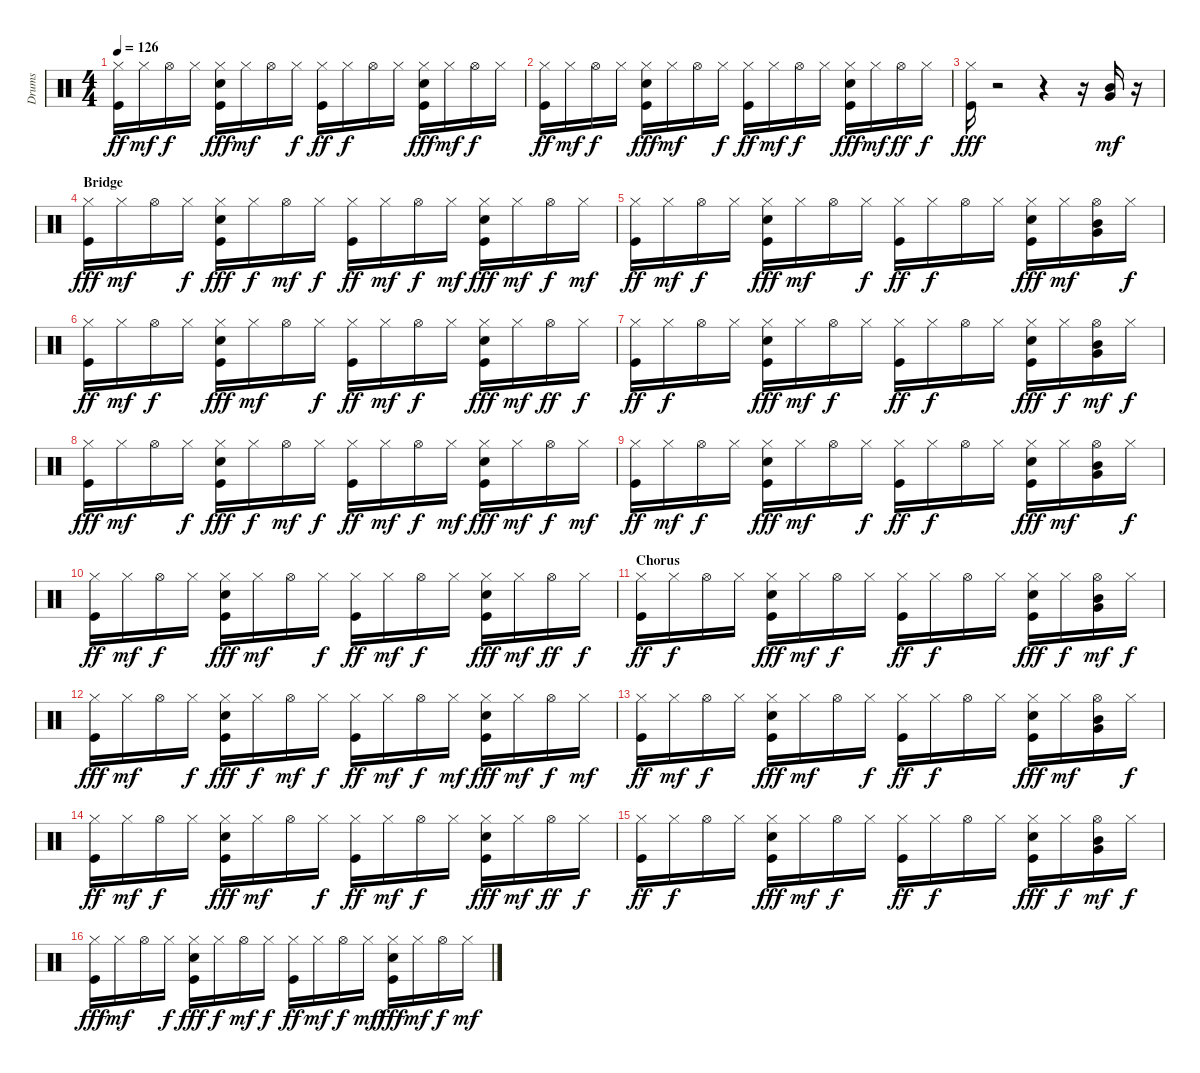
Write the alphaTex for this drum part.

\track ("Drums" "Drums") {instrument percussion}
\staff {score}
\articulation defaults
\ts (4 4)
\tempo 126
\clef neutral
\ks c
("Kick (hit)" "Hi-Hat (closed)").16{dy ff} "Hi-Hat (closed)".16{dy mf} "Hi-Hat (open)".16{dy f} "Hi-Hat (closed)".16 ("Kick (hit)" "Electric Snare (hit)" "Hi-Hat (closed)").16{dy fff} "Hi-Hat (closed)".16{dy mf} "Hi-Hat (open)".16 "Hi-Hat (closed)".16{dy f} ("Kick (hit)" "Hi-Hat (closed)").16{dy ff} "Hi-Hat (closed)".16{dy f} "Hi-Hat (open)".16 "Hi-Hat (closed)".16 ("Kick (hit)" "Electric Snare (hit)" "Hi-Hat (closed)").16{dy fff} "Hi-Hat (closed)".16{dy mf} "Hi-Hat (open)".16{dy f} "Hi-Hat (closed)".16 |
("Kick (hit)" "Hi-Hat (closed)").16{dy ff} "Hi-Hat (closed)".16{dy mf} "Hi-Hat (open)".16{dy f} "Hi-Hat (closed)".16 ("Kick (hit)" "Electric Snare (hit)" "Hi-Hat (closed)").16{dy fff} "Hi-Hat (closed)".16{dy mf} "Hi-Hat (open)".16 "Hi-Hat (closed)".16{dy f} ("Kick (hit)" "Hi-Hat (closed)").16{dy ff} "Hi-Hat (closed)".16{dy mf} "Hi-Hat (open)".16{dy f} "Hi-Hat (closed)".16 ("Kick (hit)" "Electric Snare (hit)" "Hi-Hat (closed)").16{dy fff} "Hi-Hat (closed)".16{dy mf} "Hi-Hat (open)".16{dy ff} "Hi-Hat (closed)".16{dy f} |
("Kick (hit)" "Hi-Hat (closed)").16{dy fff} r.2 r.4 r.16 ("Very Low Tom (hit)" "Mid Tom (hit)").16{dy mf} r.16 |
\section ("" "Bridge")
("Kick (hit)" "Hi-Hat (closed)").16{dy fff} "Hi-Hat (closed)".16{dy mf} "Hi-Hat (open)".16 "Hi-Hat (closed)".16{dy f} ("Kick (hit)" "Electric Snare (hit)" "Hi-Hat (closed)").16{dy fff} "Hi-Hat (closed)".16{dy f} "Hi-Hat (open)".16{dy mf} "Hi-Hat (closed)".16{dy f} ("Kick (hit)" "Hi-Hat (closed)").16{dy ff} "Hi-Hat (closed)".16{dy mf} "Hi-Hat (open)".16{dy f} "Hi-Hat (closed)".16{dy mf} ("Kick (hit)" "Electric Snare (hit)" "Hi-Hat (closed)").16{dy fff} "Hi-Hat (closed)".16{dy mf} "Hi-Hat (open)".16{dy f} "Hi-Hat (closed)".16{dy mf} |
("Kick (hit)" "Hi-Hat (closed)").16{dy ff} "Hi-Hat (closed)".16{dy mf} "Hi-Hat (open)".16{dy f} "Hi-Hat (closed)".16 ("Kick (hit)" "Electric Snare (hit)" "Hi-Hat (closed)").16{dy fff} "Hi-Hat (closed)".16{dy mf} "Hi-Hat (open)".16 "Hi-Hat (closed)".16{dy f} ("Kick (hit)" "Hi-Hat (closed)").16{dy ff} "Hi-Hat (closed)".16{dy f} "Hi-Hat (open)".16 "Hi-Hat (closed)".16 ("Kick (hit)" "Electric Snare (hit)" "Hi-Hat (closed)").16{dy fff} "Hi-Hat (closed)".16{dy mf} ("Very Low Tom (hit)" "Hi-Hat (open)" "Mid Tom (hit)").16 "Hi-Hat (closed)".16{dy f} |
("Kick (hit)" "Hi-Hat (closed)").16{dy ff} "Hi-Hat (closed)".16{dy mf} "Hi-Hat (open)".16{dy f} "Hi-Hat (closed)".16 ("Kick (hit)" "Electric Snare (hit)" "Hi-Hat (closed)").16{dy fff} "Hi-Hat (closed)".16{dy mf} "Hi-Hat (open)".16 "Hi-Hat (closed)".16{dy f} ("Kick (hit)" "Hi-Hat (closed)").16{dy ff} "Hi-Hat (closed)".16{dy mf} "Hi-Hat (open)".16{dy f} "Hi-Hat (closed)".16 ("Kick (hit)" "Electric Snare (hit)" "Hi-Hat (closed)").16{dy fff} "Hi-Hat (closed)".16{dy mf} "Hi-Hat (open)".16{dy ff} "Hi-Hat (closed)".16{dy f} |
("Kick (hit)" "Hi-Hat (closed)").16{dy ff} "Hi-Hat (closed)".16{dy f} "Hi-Hat (open)".16 "Hi-Hat (closed)".16 ("Kick (hit)" "Electric Snare (hit)" "Hi-Hat (closed)").16{dy fff} "Hi-Hat (closed)".16{dy mf} "Hi-Hat (open)".16{dy f} "Hi-Hat (closed)".16 ("Kick (hit)" "Hi-Hat (closed)").16{dy ff} "Hi-Hat (closed)".16{dy f} "Hi-Hat (open)".16 "Hi-Hat (closed)".16 ("Kick (hit)" "Electric Snare (hit)" "Hi-Hat (closed)").16{dy fff} "Hi-Hat (closed)".16{dy f} ("Very Low Tom (hit)" "Hi-Hat (open)" "Mid Tom (hit)").16{dy mf} "Hi-Hat (closed)".16{dy f} |
("Kick (hit)" "Hi-Hat (closed)").16{dy fff} "Hi-Hat (closed)".16{dy mf} "Hi-Hat (open)".16 "Hi-Hat (closed)".16{dy f} ("Kick (hit)" "Electric Snare (hit)" "Hi-Hat (closed)").16{dy fff} "Hi-Hat (closed)".16{dy f} "Hi-Hat (open)".16{dy mf} "Hi-Hat (closed)".16{dy f} ("Kick (hit)" "Hi-Hat (closed)").16{dy ff} "Hi-Hat (closed)".16{dy mf} "Hi-Hat (open)".16{dy f} "Hi-Hat (closed)".16{dy mf} ("Kick (hit)" "Electric Snare (hit)" "Hi-Hat (closed)").16{dy fff} "Hi-Hat (closed)".16{dy mf} "Hi-Hat (open)".16{dy f} "Hi-Hat (closed)".16{dy mf} |
("Kick (hit)" "Hi-Hat (closed)").16{dy ff} "Hi-Hat (closed)".16{dy mf} "Hi-Hat (open)".16{dy f} "Hi-Hat (closed)".16 ("Kick (hit)" "Electric Snare (hit)" "Hi-Hat (closed)").16{dy fff} "Hi-Hat (closed)".16{dy mf} "Hi-Hat (open)".16 "Hi-Hat (closed)".16{dy f} ("Kick (hit)" "Hi-Hat (closed)").16{dy ff} "Hi-Hat (closed)".16{dy f} "Hi-Hat (open)".16 "Hi-Hat (closed)".16 ("Kick (hit)" "Electric Snare (hit)" "Hi-Hat (closed)").16{dy fff} "Hi-Hat (closed)".16{dy mf} ("Very Low Tom (hit)" "Hi-Hat (open)" "Mid Tom (hit)").16 "Hi-Hat (closed)".16{dy f} |
("Kick (hit)" "Hi-Hat (closed)").16{dy ff} "Hi-Hat (closed)".16{dy mf} "Hi-Hat (open)".16{dy f} "Hi-Hat (closed)".16 ("Kick (hit)" "Electric Snare (hit)" "Hi-Hat (closed)").16{dy fff} "Hi-Hat (closed)".16{dy mf} "Hi-Hat (open)".16 "Hi-Hat (closed)".16{dy f} ("Kick (hit)" "Hi-Hat (closed)").16{dy ff} "Hi-Hat (closed)".16{dy mf} "Hi-Hat (open)".16{dy f} "Hi-Hat (closed)".16 ("Kick (hit)" "Electric Snare (hit)" "Hi-Hat (closed)").16{dy fff} "Hi-Hat (closed)".16{dy mf} "Hi-Hat (open)".16{dy ff} "Hi-Hat (closed)".16{dy f} |
\section ("" "Chorus")
("Kick (hit)" "Hi-Hat (closed)").16{dy ff} "Hi-Hat (closed)".16{dy f} "Hi-Hat (open)".16 "Hi-Hat (closed)".16 ("Kick (hit)" "Electric Snare (hit)" "Hi-Hat (closed)").16{dy fff} "Hi-Hat (closed)".16{dy mf} "Hi-Hat (open)".16{dy f} "Hi-Hat (closed)".16 ("Kick (hit)" "Hi-Hat (closed)").16{dy ff} "Hi-Hat (closed)".16{dy f} "Hi-Hat (open)".16 "Hi-Hat (closed)".16 ("Kick (hit)" "Electric Snare (hit)" "Hi-Hat (closed)").16{dy fff} "Hi-Hat (closed)".16{dy f} ("Very Low Tom (hit)" "Hi-Hat (open)" "Mid Tom (hit)").16{dy mf} "Hi-Hat (closed)".16{dy f} |
("Kick (hit)" "Hi-Hat (closed)").16{dy fff} "Hi-Hat (closed)".16{dy mf} "Hi-Hat (open)".16 "Hi-Hat (closed)".16{dy f} ("Kick (hit)" "Electric Snare (hit)" "Hi-Hat (closed)").16{dy fff} "Hi-Hat (closed)".16{dy f} "Hi-Hat (open)".16{dy mf} "Hi-Hat (closed)".16{dy f} ("Kick (hit)" "Hi-Hat (closed)").16{dy ff} "Hi-Hat (closed)".16{dy mf} "Hi-Hat (open)".16{dy f} "Hi-Hat (closed)".16{dy mf} ("Kick (hit)" "Electric Snare (hit)" "Hi-Hat (closed)").16{dy fff} "Hi-Hat (closed)".16{dy mf} "Hi-Hat (open)".16{dy f} "Hi-Hat (closed)".16{dy mf} |
("Kick (hit)" "Hi-Hat (closed)").16{dy ff} "Hi-Hat (closed)".16{dy mf} "Hi-Hat (open)".16{dy f} "Hi-Hat (closed)".16 ("Kick (hit)" "Electric Snare (hit)" "Hi-Hat (closed)").16{dy fff} "Hi-Hat (closed)".16{dy mf} "Hi-Hat (open)".16 "Hi-Hat (closed)".16{dy f} ("Kick (hit)" "Hi-Hat (closed)").16{dy ff} "Hi-Hat (closed)".16{dy f} "Hi-Hat (open)".16 "Hi-Hat (closed)".16 ("Kick (hit)" "Electric Snare (hit)" "Hi-Hat (closed)").16{dy fff} "Hi-Hat (closed)".16{dy mf} ("Very Low Tom (hit)" "Hi-Hat (open)" "Mid Tom (hit)").16 "Hi-Hat (closed)".16{dy f} |
("Kick (hit)" "Hi-Hat (closed)").16{dy ff} "Hi-Hat (closed)".16{dy mf} "Hi-Hat (open)".16{dy f} "Hi-Hat (closed)".16 ("Kick (hit)" "Electric Snare (hit)" "Hi-Hat (closed)").16{dy fff} "Hi-Hat (closed)".16{dy mf} "Hi-Hat (open)".16 "Hi-Hat (closed)".16{dy f} ("Kick (hit)" "Hi-Hat (closed)").16{dy ff} "Hi-Hat (closed)".16{dy mf} "Hi-Hat (open)".16{dy f} "Hi-Hat (closed)".16 ("Kick (hit)" "Electric Snare (hit)" "Hi-Hat (closed)").16{dy fff} "Hi-Hat (closed)".16{dy mf} "Hi-Hat (open)".16{dy ff} "Hi-Hat (closed)".16{dy f} |
("Kick (hit)" "Hi-Hat (closed)").16{dy ff} "Hi-Hat (closed)".16{dy f} "Hi-Hat (open)".16 "Hi-Hat (closed)".16 ("Kick (hit)" "Electric Snare (hit)" "Hi-Hat (closed)").16{dy fff} "Hi-Hat (closed)".16{dy mf} "Hi-Hat (open)".16{dy f} "Hi-Hat (closed)".16 ("Kick (hit)" "Hi-Hat (closed)").16{dy ff} "Hi-Hat (closed)".16{dy f} "Hi-Hat (open)".16 "Hi-Hat (closed)".16 ("Kick (hit)" "Electric Snare (hit)" "Hi-Hat (closed)").16{dy fff} "Hi-Hat (closed)".16{dy f} ("Very Low Tom (hit)" "Hi-Hat (open)" "Mid Tom (hit)").16{dy mf} "Hi-Hat (closed)".16{dy f} |
("Kick (hit)" "Hi-Hat (closed)").16{dy fff} "Hi-Hat (closed)".16{dy mf} "Hi-Hat (open)".16 "Hi-Hat (closed)".16{dy f} ("Kick (hit)" "Electric Snare (hit)" "Hi-Hat (closed)").16{dy fff} "Hi-Hat (closed)".16{dy f} "Hi-Hat (open)".16{dy mf} "Hi-Hat (closed)".16{dy f} ("Kick (hit)" "Hi-Hat (closed)").16{dy ff} "Hi-Hat (closed)".16{dy mf} "Hi-Hat (open)".16{dy f} "Hi-Hat (closed)".16{dy mf} ("Kick (hit)" "Electric Snare (hit)" "Hi-Hat (closed)").16{dy fff} "Hi-Hat (closed)".16{dy mf} "Hi-Hat (open)".16{dy f} "Hi-Hat (closed)".16{dy mf}
